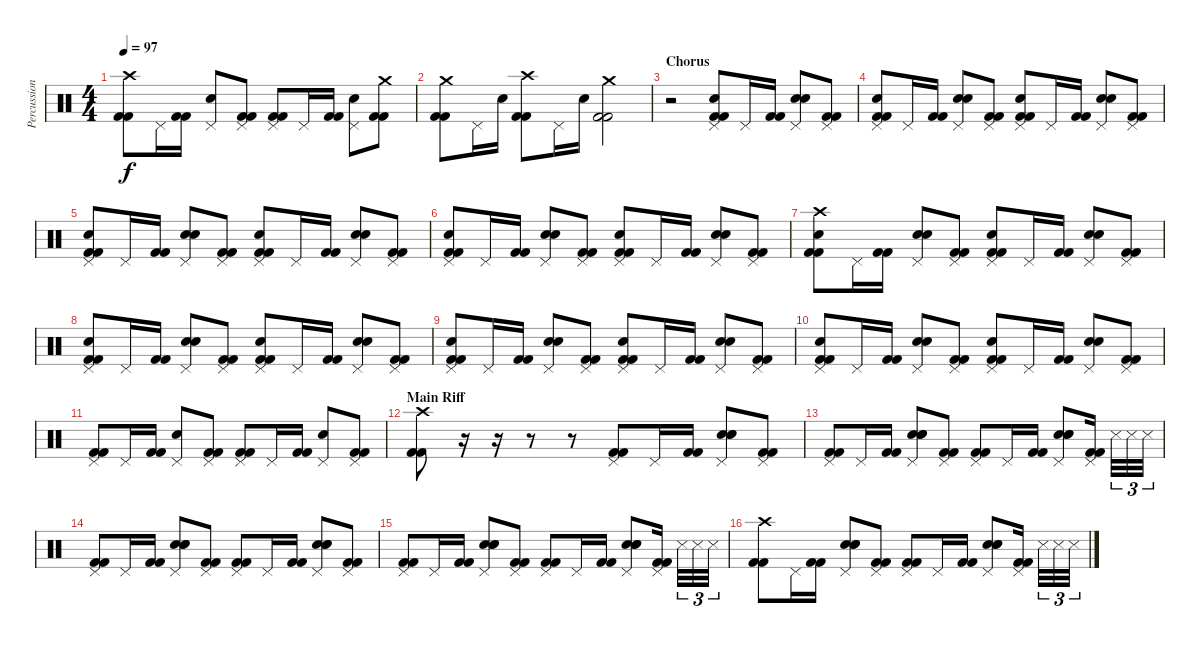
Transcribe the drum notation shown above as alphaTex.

\track ("Percussions" "Percussion") {instrument percussion}
\staff {score}
\articulation defaults
\ts (4 4)
\tempo 97
\clef neutral
\ks c
("Crash high (hit)" "Kick (hit) 2" "Kick (hit) 2").8{dy f} "Pedal Hi-Hat (hit)".16 ("Kick (hit) 2" "Kick (hit) 2").16 ("Pedal Hi-Hat (hit)" "Electric Snare (hit)").8 ("Pedal Hi-Hat (hit)" "Kick (hit) 2" "Kick (hit) 2").8 ("Pedal Hi-Hat (hit)" "Kick (hit) 2" "Kick (hit) 2").8 "Pedal Hi-Hat (hit)".16 ("Kick (hit) 2" "Kick (hit) 2").16 ("Pedal Hi-Hat (hit)" "Electric Snare (hit)").8 ("Crash medium (hit)" "Kick (hit) 2" "Kick (hit) 2").8 |
("Crash medium (hit)" "Kick (hit) 2" "Kick (hit) 2").8 "Pedal Hi-Hat (hit)".16 "Electric Snare (hit)".16 ("Crash high (hit)" "Kick (hit) 2" "Kick (hit) 2").8 "Pedal Hi-Hat (hit)".16 "Electric Snare (hit)".16 ("Crash medium (hit)" "Kick (hit) 2" "Kick (hit) 2").2 |
\section ("" "Chorus")
r.2 ("Pedal Hi-Hat (hit)" "Hand Clap (hit)" "Kick (hit) 2" "Kick (hit) 2").8 "Pedal Hi-Hat (hit)".16 ("Kick (hit) 2" "Kick (hit) 2").16 ("Pedal Hi-Hat (hit)" "Electric Snare (hit)" "Hand Clap (hit)").8 ("Pedal Hi-Hat (hit)" "Kick (hit) 2" "Kick (hit) 2").8 |
("Pedal Hi-Hat (hit)" "Hand Clap (hit)" "Kick (hit) 2" "Kick (hit) 2").8 "Pedal Hi-Hat (hit)".16 ("Kick (hit) 2" "Kick (hit) 2").16 ("Pedal Hi-Hat (hit)" "Electric Snare (hit)" "Hand Clap (hit)").8 ("Pedal Hi-Hat (hit)" "Kick (hit) 2" "Kick (hit) 2").8 ("Pedal Hi-Hat (hit)" "Hand Clap (hit)" "Kick (hit) 2" "Kick (hit) 2").8 "Pedal Hi-Hat (hit)".16 ("Kick (hit) 2" "Kick (hit) 2").16 ("Pedal Hi-Hat (hit)" "Electric Snare (hit)" "Hand Clap (hit)").8 ("Pedal Hi-Hat (hit)" "Kick (hit) 2" "Kick (hit) 2").8 |
("Pedal Hi-Hat (hit)" "Hand Clap (hit)" "Kick (hit) 2" "Kick (hit) 2").8 "Pedal Hi-Hat (hit)".16 ("Kick (hit) 2" "Kick (hit) 2").16 ("Pedal Hi-Hat (hit)" "Electric Snare (hit)" "Hand Clap (hit)").8 ("Pedal Hi-Hat (hit)" "Kick (hit) 2" "Kick (hit) 2").8 ("Pedal Hi-Hat (hit)" "Hand Clap (hit)" "Kick (hit) 2" "Kick (hit) 2").8 "Pedal Hi-Hat (hit)".16 ("Kick (hit) 2" "Kick (hit) 2").16 ("Pedal Hi-Hat (hit)" "Electric Snare (hit)" "Hand Clap (hit)").8 ("Pedal Hi-Hat (hit)" "Kick (hit) 2" "Kick (hit) 2").8 |
("Pedal Hi-Hat (hit)" "Hand Clap (hit)" "Kick (hit) 2" "Kick (hit) 2").8 "Pedal Hi-Hat (hit)".16 ("Kick (hit) 2" "Kick (hit) 2").16 ("Pedal Hi-Hat (hit)" "Electric Snare (hit)" "Hand Clap (hit)").8 ("Pedal Hi-Hat (hit)" "Kick (hit) 2" "Kick (hit) 2").8 ("Pedal Hi-Hat (hit)" "Hand Clap (hit)" "Kick (hit) 2" "Kick (hit) 2").8 "Pedal Hi-Hat (hit)".16 ("Kick (hit) 2" "Kick (hit) 2").16 ("Pedal Hi-Hat (hit)" "Electric Snare (hit)" "Hand Clap (hit)").8 ("Pedal Hi-Hat (hit)" "Kick (hit) 2" "Kick (hit) 2").8 |
("Crash high (hit)" "Hand Clap (hit)" "Kick (hit) 2" "Kick (hit) 2").8 "Pedal Hi-Hat (hit)".16 ("Kick (hit) 2" "Kick (hit) 2").16 ("Pedal Hi-Hat (hit)" "Electric Snare (hit)" "Hand Clap (hit)").8 ("Pedal Hi-Hat (hit)" "Kick (hit) 2" "Kick (hit) 2").8 ("Pedal Hi-Hat (hit)" "Hand Clap (hit)" "Kick (hit) 2" "Kick (hit) 2").8 "Pedal Hi-Hat (hit)".16 ("Kick (hit) 2" "Kick (hit) 2").16 ("Pedal Hi-Hat (hit)" "Electric Snare (hit)" "Hand Clap (hit)").8 ("Pedal Hi-Hat (hit)" "Kick (hit) 2" "Kick (hit) 2").8 |
("Pedal Hi-Hat (hit)" "Hand Clap (hit)" "Kick (hit) 2" "Kick (hit) 2").8 "Pedal Hi-Hat (hit)".16 ("Kick (hit) 2" "Kick (hit) 2").16 ("Pedal Hi-Hat (hit)" "Electric Snare (hit)" "Hand Clap (hit)").8 ("Pedal Hi-Hat (hit)" "Kick (hit) 2" "Kick (hit) 2").8 ("Pedal Hi-Hat (hit)" "Hand Clap (hit)" "Kick (hit) 2" "Kick (hit) 2").8 "Pedal Hi-Hat (hit)".16 ("Kick (hit) 2" "Kick (hit) 2").16 ("Pedal Hi-Hat (hit)" "Electric Snare (hit)" "Hand Clap (hit)").8 ("Pedal Hi-Hat (hit)" "Kick (hit) 2" "Kick (hit) 2").8 |
("Pedal Hi-Hat (hit)" "Hand Clap (hit)" "Kick (hit) 2" "Kick (hit) 2").8 "Pedal Hi-Hat (hit)".16 ("Kick (hit) 2" "Kick (hit) 2").16 ("Pedal Hi-Hat (hit)" "Electric Snare (hit)" "Hand Clap (hit)").8 ("Pedal Hi-Hat (hit)" "Kick (hit) 2" "Kick (hit) 2").8 ("Pedal Hi-Hat (hit)" "Hand Clap (hit)" "Kick (hit) 2" "Kick (hit) 2").8 "Pedal Hi-Hat (hit)".16 ("Kick (hit) 2" "Kick (hit) 2").16 ("Pedal Hi-Hat (hit)" "Electric Snare (hit)" "Hand Clap (hit)").8 ("Pedal Hi-Hat (hit)" "Kick (hit) 2" "Kick (hit) 2").8 |
("Pedal Hi-Hat (hit)" "Hand Clap (hit)" "Kick (hit) 2" "Kick (hit) 2").8 "Pedal Hi-Hat (hit)".16 ("Kick (hit) 2" "Kick (hit) 2").16 ("Pedal Hi-Hat (hit)" "Electric Snare (hit)" "Hand Clap (hit)").8 ("Pedal Hi-Hat (hit)" "Kick (hit) 2" "Kick (hit) 2").8 ("Pedal Hi-Hat (hit)" "Hand Clap (hit)" "Kick (hit) 2" "Kick (hit) 2").8 "Pedal Hi-Hat (hit)".16 ("Kick (hit) 2" "Kick (hit) 2").16 ("Pedal Hi-Hat (hit)" "Electric Snare (hit)" "Hand Clap (hit)").8 ("Pedal Hi-Hat (hit)" "Kick (hit) 2" "Kick (hit) 2").8 |
("Pedal Hi-Hat (hit)" "Kick (hit) 2" "Kick (hit) 2").8 "Pedal Hi-Hat (hit)".16 ("Kick (hit) 2" "Kick (hit) 2").16 ("Pedal Hi-Hat (hit)" "Electric Snare (hit)").8 ("Pedal Hi-Hat (hit)" "Kick (hit) 2" "Kick (hit) 2").8 ("Pedal Hi-Hat (hit)" "Kick (hit) 2" "Kick (hit) 2").8 "Pedal Hi-Hat (hit)".16 ("Kick (hit) 2" "Kick (hit) 2").16 ("Pedal Hi-Hat (hit)" "Electric Snare (hit)").8 ("Pedal Hi-Hat (hit)" "Kick (hit) 2" "Kick (hit) 2").8 |
\section ("" "Main Riff")
("Crash high (hit)" "Kick (hit) 2" "Kick (hit) 2").8 r.16 r.16 r.8 r.8 ("Pedal Hi-Hat (hit)" "Kick (hit) 2" "Kick (hit) 2").8 "Pedal Hi-Hat (hit)".16 ("Kick (hit) 2" "Kick (hit) 2").16 ("Pedal Hi-Hat (hit)" "Hand Clap (hit)" "Hand Clap (hit)" "Hand Clap (hit)").8 ("Pedal Hi-Hat (hit)" "Kick (hit) 2" "Kick (hit) 2").8 |
("Pedal Hi-Hat (hit)" "Kick (hit) 2" "Kick (hit) 2").8 "Pedal Hi-Hat (hit)".16 ("Kick (hit) 2" "Kick (hit) 2").16 ("Pedal Hi-Hat (hit)" "Hand Clap (hit)" "Hand Clap (hit)" "Hand Clap (hit)").8 ("Pedal Hi-Hat (hit)" "Kick (hit) 2" "Kick (hit) 2").8 ("Pedal Hi-Hat (hit)" "Kick (hit) 2" "Kick (hit) 2").8 "Pedal Hi-Hat (hit)".16 ("Kick (hit) 2" "Kick (hit) 2").16 ("Pedal Hi-Hat (hit)" "Hand Clap (hit)" "Hand Clap (hit)" "Hand Clap (hit)").8 ("Pedal Hi-Hat (hit)" "Kick (hit) 2" "Kick (hit) 2").16 "Snare (side stick) 3".32{tu (3 2)} "Snare (side stick) 3".32{tu (3 2)} "Snare (side stick) 3".32{tu (3 2)} |
("Pedal Hi-Hat (hit)" "Kick (hit) 2" "Kick (hit) 2").8 "Pedal Hi-Hat (hit)".16 ("Kick (hit) 2" "Kick (hit) 2").16 ("Pedal Hi-Hat (hit)" "Hand Clap (hit)" "Hand Clap (hit)" "Hand Clap (hit)").8 ("Pedal Hi-Hat (hit)" "Kick (hit) 2" "Kick (hit) 2").8 ("Pedal Hi-Hat (hit)" "Kick (hit) 2" "Kick (hit) 2").8 "Pedal Hi-Hat (hit)".16 ("Kick (hit) 2" "Kick (hit) 2").16 ("Pedal Hi-Hat (hit)" "Hand Clap (hit)" "Hand Clap (hit)" "Hand Clap (hit)").8 ("Pedal Hi-Hat (hit)" "Kick (hit) 2" "Kick (hit) 2").8 |
("Pedal Hi-Hat (hit)" "Kick (hit) 2" "Kick (hit) 2").8 "Pedal Hi-Hat (hit)".16 ("Kick (hit) 2" "Kick (hit) 2").16 ("Pedal Hi-Hat (hit)" "Hand Clap (hit)" "Hand Clap (hit)" "Hand Clap (hit)").8 ("Pedal Hi-Hat (hit)" "Kick (hit) 2" "Kick (hit) 2").8 ("Pedal Hi-Hat (hit)" "Kick (hit) 2" "Kick (hit) 2").8 "Pedal Hi-Hat (hit)".16 ("Kick (hit) 2" "Kick (hit) 2").16 ("Pedal Hi-Hat (hit)" "Hand Clap (hit)" "Hand Clap (hit)" "Hand Clap (hit)").8 ("Pedal Hi-Hat (hit)" "Kick (hit) 2" "Kick (hit) 2").16 "Snare (side stick) 3".32{tu (3 2)} "Snare (side stick) 3".32{tu (3 2)} "Snare (side stick) 3".32{tu (3 2)} |
("Crash high (hit)" "Kick (hit) 2" "Kick (hit) 2").8 "Pedal Hi-Hat (hit)".16 ("Kick (hit) 2" "Kick (hit) 2").16 ("Pedal Hi-Hat (hit)" "Hand Clap (hit)" "Hand Clap (hit)" "Hand Clap (hit)").8 ("Pedal Hi-Hat (hit)" "Kick (hit) 2" "Kick (hit) 2").8 ("Pedal Hi-Hat (hit)" "Kick (hit) 2" "Kick (hit) 2").8 "Pedal Hi-Hat (hit)".16 ("Kick (hit) 2" "Kick (hit) 2").16 ("Pedal Hi-Hat (hit)" "Hand Clap (hit)" "Hand Clap (hit)" "Hand Clap (hit)").8 ("Pedal Hi-Hat (hit)" "Kick (hit) 2" "Kick (hit) 2").16 "Snare (side stick) 3".32{tu (3 2)} "Snare (side stick) 3".32{tu (3 2)} "Snare (side stick) 3".32{tu (3 2)}
